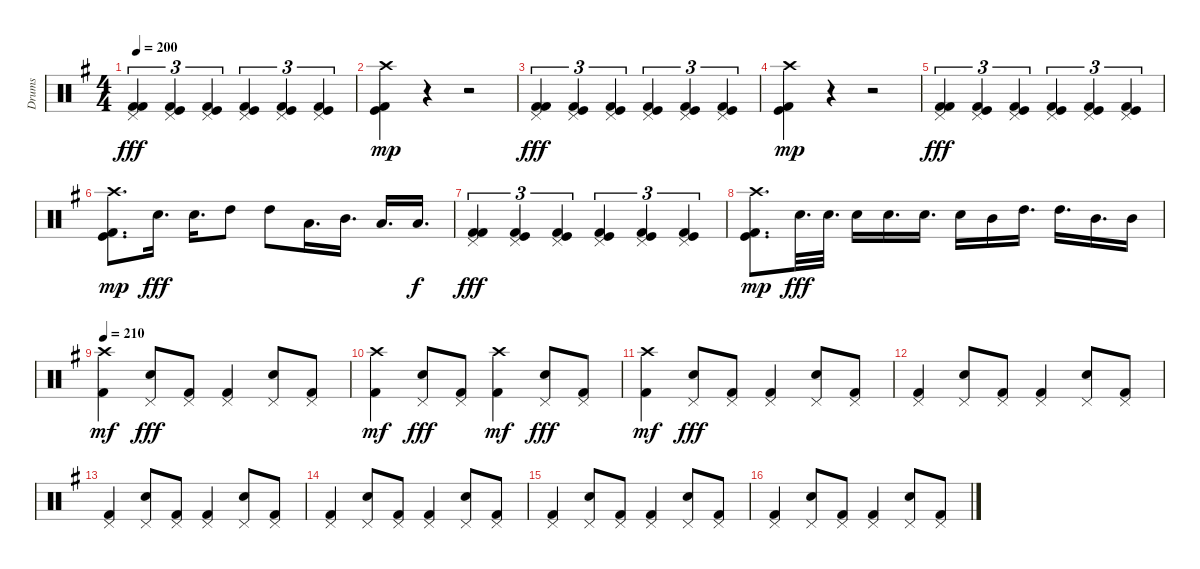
\track ("Drums" "Drums") {instrument percussion}
\staff {score}
\articulation defaults
\ts (4 4)
\tempo 200
\clef neutral
\ks g
("Kick (hit) 2" "Kick (hit) 2" "Pedal Hi-Hat (hit)").4{tu (3 2) dy fff} ("Kick (hit) 2" "Kick (hit)" "Pedal Hi-Hat (hit)").4{tu (3 2)} ("Kick (hit) 2" "Kick (hit)" "Pedal Hi-Hat (hit)").4{tu (3 2)} ("Kick (hit) 2" "Kick (hit)" "Pedal Hi-Hat (hit)").4{tu (3 2)} ("Kick (hit) 2" "Kick (hit)" "Pedal Hi-Hat (hit)").4{tu (3 2)} ("Kick (hit) 2" "Kick (hit)" "Pedal Hi-Hat (hit)").4{tu (3 2)} |
("Kick (hit) 2" "Kick (hit)" "Crash high (hit)").4{dy mp} r.4 r.2 |
("Kick (hit) 2" "Kick (hit) 2" "Pedal Hi-Hat (hit)").4{tu (3 2) dy fff} ("Kick (hit) 2" "Kick (hit)" "Pedal Hi-Hat (hit)").4{tu (3 2)} ("Kick (hit) 2" "Kick (hit)" "Pedal Hi-Hat (hit)").4{tu (3 2)} ("Kick (hit) 2" "Kick (hit)" "Pedal Hi-Hat (hit)").4{tu (3 2)} ("Kick (hit) 2" "Kick (hit)" "Pedal Hi-Hat (hit)").4{tu (3 2)} ("Kick (hit) 2" "Kick (hit)" "Pedal Hi-Hat (hit)").4{tu (3 2)} |
("Kick (hit) 2" "Kick (hit)" "Crash high (hit)").4{dy mp} r.4 r.2 |
("Kick (hit) 2" "Kick (hit) 2" "Pedal Hi-Hat (hit)").4{tu (3 2) dy fff} ("Kick (hit) 2" "Kick (hit)" "Pedal Hi-Hat (hit)").4{tu (3 2)} ("Kick (hit) 2" "Kick (hit)" "Pedal Hi-Hat (hit)").4{tu (3 2)} ("Kick (hit) 2" "Kick (hit)" "Pedal Hi-Hat (hit)").4{tu (3 2)} ("Kick (hit) 2" "Kick (hit)" "Pedal Hi-Hat (hit)").4{tu (3 2)} ("Kick (hit) 2" "Kick (hit)" "Pedal Hi-Hat (hit)").4{tu (3 2)} |
("Kick (hit) 2" "Kick (hit)" "Crash high (hit)").8{d dy mp} "Electric Snare (hit)".16{d dy fff} "Electric Snare (hit)".16{d} "High Tom (hit)".8 "High Tom (hit)".8 "Low Tom (hit)".16{d} "Mid Tom (hit)".16{d} "Low Tom (hit)".16{d} "Low Tom (hit)".16{d dy f} |
("Kick (hit) 2" "Kick (hit) 2" "Pedal Hi-Hat (hit)").4{tu (3 2) dy fff} ("Kick (hit) 2" "Kick (hit)" "Pedal Hi-Hat (hit)").4{tu (3 2)} ("Kick (hit) 2" "Kick (hit)" "Pedal Hi-Hat (hit)").4{tu (3 2)} ("Kick (hit) 2" "Kick (hit)" "Pedal Hi-Hat (hit)").4{tu (3 2)} ("Kick (hit) 2" "Kick (hit)" "Pedal Hi-Hat (hit)").4{tu (3 2)} ("Kick (hit) 2" "Kick (hit)" "Pedal Hi-Hat (hit)").4{tu (3 2)} |
("Kick (hit) 2" "Kick (hit)" "Crash high (hit)").8{d dy mp} "Electric Snare (hit)".32{d dy fff} "Electric Snare (hit)".32{d} "Electric Snare (hit)".16 "Electric Snare (hit)".16{d} "Electric Snare (hit)".16{d} "Electric Snare (hit)".16 "Mid Tom (hit)".16 "High Tom (hit)".16{d} "High Tom (hit)".16{d} "Mid Tom (hit)".16{d} "Mid Tom (hit)".16 |
\tempo 210
("Kick (hit) 2" "Crash high (hit)").4{dy mf} ("Electric Snare (hit)" "Pedal Hi-Hat (hit)").8{dy fff} ("Kick (hit) 2" "Pedal Hi-Hat (hit)").8 ("Kick (hit) 2" "Pedal Hi-Hat (hit)").4 ("Electric Snare (hit)" "Pedal Hi-Hat (hit)").8 ("Kick (hit) 2" "Pedal Hi-Hat (hit)").8 |
("Kick (hit) 2" "Crash high (hit)").4{dy mf} ("Electric Snare (hit)" "Pedal Hi-Hat (hit)").8{dy fff} ("Kick (hit) 2" "Pedal Hi-Hat (hit)").8 ("Kick (hit) 2" "Crash high (hit)").4{dy mf} ("Electric Snare (hit)" "Pedal Hi-Hat (hit)").8{dy fff} ("Kick (hit) 2" "Pedal Hi-Hat (hit)").8 |
("Kick (hit) 2" "Crash high (hit)").4{dy mf} ("Electric Snare (hit)" "Pedal Hi-Hat (hit)").8{dy fff} ("Kick (hit) 2" "Pedal Hi-Hat (hit)").8 ("Kick (hit) 2" "Pedal Hi-Hat (hit)").4 ("Electric Snare (hit)" "Pedal Hi-Hat (hit)").8 ("Kick (hit) 2" "Pedal Hi-Hat (hit)").8 |
("Kick (hit) 2" "Pedal Hi-Hat (hit)").4 ("Electric Snare (hit)" "Pedal Hi-Hat (hit)").8 ("Kick (hit) 2" "Pedal Hi-Hat (hit)").8 ("Kick (hit) 2" "Pedal Hi-Hat (hit)").4 ("Electric Snare (hit)" "Pedal Hi-Hat (hit)").8 ("Kick (hit) 2" "Pedal Hi-Hat (hit)").8 |
("Kick (hit) 2" "Pedal Hi-Hat (hit)").4 ("Electric Snare (hit)" "Pedal Hi-Hat (hit)").8 ("Kick (hit) 2" "Pedal Hi-Hat (hit)").8 ("Kick (hit) 2" "Pedal Hi-Hat (hit)").4 ("Electric Snare (hit)" "Pedal Hi-Hat (hit)").8 ("Kick (hit) 2" "Pedal Hi-Hat (hit)").8 |
("Kick (hit) 2" "Pedal Hi-Hat (hit)").4 ("Electric Snare (hit)" "Pedal Hi-Hat (hit)").8 ("Kick (hit) 2" "Pedal Hi-Hat (hit)").8 ("Kick (hit) 2" "Pedal Hi-Hat (hit)").4 ("Electric Snare (hit)" "Pedal Hi-Hat (hit)").8 ("Kick (hit) 2" "Pedal Hi-Hat (hit)").8 |
("Kick (hit) 2" "Pedal Hi-Hat (hit)").4 ("Electric Snare (hit)" "Pedal Hi-Hat (hit)").8 ("Kick (hit) 2" "Pedal Hi-Hat (hit)").8 ("Kick (hit) 2" "Pedal Hi-Hat (hit)").4 ("Electric Snare (hit)" "Pedal Hi-Hat (hit)").8 ("Kick (hit) 2" "Pedal Hi-Hat (hit)").8 |
("Kick (hit) 2" "Pedal Hi-Hat (hit)").4 ("Electric Snare (hit)" "Pedal Hi-Hat (hit)").8 ("Kick (hit) 2" "Pedal Hi-Hat (hit)").8 ("Kick (hit) 2" "Pedal Hi-Hat (hit)").4 ("Electric Snare (hit)" "Pedal Hi-Hat (hit)").8 ("Kick (hit) 2" "Pedal Hi-Hat (hit)").8
